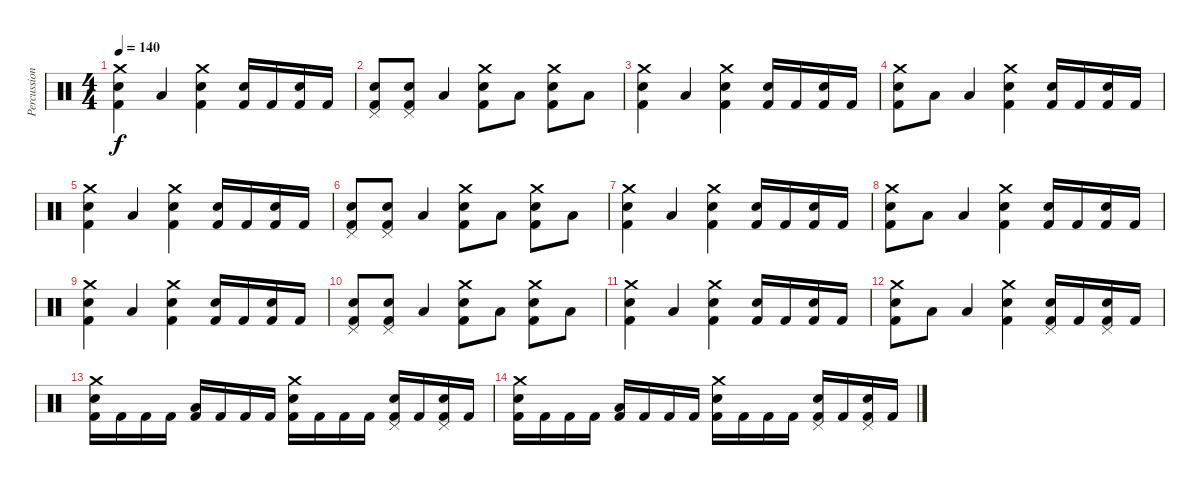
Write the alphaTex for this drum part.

\track ("Percussions" "Percussion") {instrument percussion}
\staff {score}
\articulation defaults
\ts (4 4)
\tempo 140
\clef neutral
\ks c
("Crash medium (hit)" "Electric Snare (hit)" "Kick (hit) 2").4{dy f} "Low Tom (hit)".4 ("Crash medium (hit)" "Electric Snare (hit)" "Kick (hit) 2").4 ("Electric Snare (hit)" "Kick (hit) 2").16 "Kick (hit) 2".16 ("Electric Snare (hit)" "Kick (hit) 2").16 "Kick (hit) 2".16 |
("Pedal Hi-Hat (hit)" "Electric Snare (hit)" "Kick (hit) 2").8 ("Pedal Hi-Hat (hit)" "Electric Snare (hit)" "Kick (hit) 2").8 "Low Tom (hit)".4 ("Crash medium (hit)" "Electric Snare (hit)" "Kick (hit) 2").8 "Low Tom (hit)".8 ("Crash medium (hit)" "Electric Snare (hit)" "Kick (hit) 2").8 "Low Tom (hit)".8 |
("Crash medium (hit)" "Electric Snare (hit)" "Kick (hit) 2").4 "Low Tom (hit)".4 ("Crash medium (hit)" "Electric Snare (hit)" "Kick (hit) 2").4 ("Electric Snare (hit)" "Kick (hit) 2").16 "Kick (hit) 2".16 ("Electric Snare (hit)" "Kick (hit) 2").16 "Kick (hit) 2".16 |
("Crash medium (hit)" "Electric Snare (hit)" "Kick (hit) 2").8 "Low Tom (hit)".8 "Low Tom (hit)".4 ("Crash medium (hit)" "Electric Snare (hit)" "Kick (hit) 2").4 ("Electric Snare (hit)" "Kick (hit) 2").16 "Kick (hit) 2".16 ("Electric Snare (hit)" "Kick (hit) 2").16 "Kick (hit) 2".16 |
("Crash medium (hit)" "Electric Snare (hit)" "Kick (hit) 2").4 "Low Tom (hit)".4 ("Crash medium (hit)" "Electric Snare (hit)" "Kick (hit) 2").4 ("Electric Snare (hit)" "Kick (hit) 2").16 "Kick (hit) 2".16 ("Electric Snare (hit)" "Kick (hit) 2").16 "Kick (hit) 2".16 |
("Pedal Hi-Hat (hit)" "Electric Snare (hit)" "Kick (hit) 2").8 ("Pedal Hi-Hat (hit)" "Electric Snare (hit)" "Kick (hit) 2").8 "Low Tom (hit)".4 ("Crash medium (hit)" "Electric Snare (hit)" "Kick (hit) 2").8 "Low Tom (hit)".8 ("Crash medium (hit)" "Electric Snare (hit)" "Kick (hit) 2").8 "Low Tom (hit)".8 |
("Crash medium (hit)" "Electric Snare (hit)" "Kick (hit) 2").4 "Low Tom (hit)".4 ("Crash medium (hit)" "Electric Snare (hit)" "Kick (hit) 2").4 ("Electric Snare (hit)" "Kick (hit) 2").16 "Kick (hit) 2".16 ("Electric Snare (hit)" "Kick (hit) 2").16 "Kick (hit) 2".16 |
("Crash medium (hit)" "Electric Snare (hit)" "Kick (hit) 2").8 "Low Tom (hit)".8 "Low Tom (hit)".4 ("Crash medium (hit)" "Electric Snare (hit)" "Kick (hit) 2").4 ("Electric Snare (hit)" "Kick (hit) 2").16 "Kick (hit) 2".16 ("Electric Snare (hit)" "Kick (hit) 2").16 "Kick (hit) 2".16 |
("Crash medium (hit)" "Electric Snare (hit)" "Kick (hit) 2").4 "Low Tom (hit)".4 ("Crash medium (hit)" "Electric Snare (hit)" "Kick (hit) 2").4 ("Electric Snare (hit)" "Kick (hit) 2").16 "Kick (hit) 2".16 ("Electric Snare (hit)" "Kick (hit) 2").16 "Kick (hit) 2".16 |
("Pedal Hi-Hat (hit)" "Electric Snare (hit)" "Kick (hit) 2").8 ("Pedal Hi-Hat (hit)" "Electric Snare (hit)" "Kick (hit) 2").8 "Low Tom (hit)".4 ("Crash medium (hit)" "Electric Snare (hit)" "Kick (hit) 2").8 "Low Tom (hit)".8 ("Crash medium (hit)" "Electric Snare (hit)" "Kick (hit) 2").8 "Low Tom (hit)".8 |
("Crash medium (hit)" "Electric Snare (hit)" "Kick (hit) 2").4 "Low Tom (hit)".4 ("Crash medium (hit)" "Electric Snare (hit)" "Kick (hit) 2").4 ("Electric Snare (hit)" "Kick (hit) 2").16 "Kick (hit) 2".16 ("Electric Snare (hit)" "Kick (hit) 2").16 "Kick (hit) 2".16 |
("Crash medium (hit)" "Electric Snare (hit)" "Kick (hit) 2").8 "Low Tom (hit)".8 "Low Tom (hit)".4 ("Crash medium (hit)" "Electric Snare (hit)" "Kick (hit) 2").4 ("Pedal Hi-Hat (hit)" "Electric Snare (hit)" "Kick (hit) 2").16 "Kick (hit) 2".16 ("Pedal Hi-Hat (hit)" "Electric Snare (hit)" "Kick (hit) 2").16 "Kick (hit) 2".16 |
("Crash medium (hit)" "Electric Snare (hit)" "Kick (hit) 2").16 "Kick (hit) 2".16 "Kick (hit) 2".16 "Kick (hit) 2".16 ("Low Tom (hit)" "Kick (hit) 2").16 "Kick (hit) 2".16 "Kick (hit) 2".16 "Kick (hit) 2".16 ("Crash medium (hit)" "Electric Snare (hit)" "Kick (hit) 2").16 "Kick (hit) 2".16 "Kick (hit) 2".16 "Kick (hit) 2".16 ("Pedal Hi-Hat (hit)" "Electric Snare (hit)" "Kick (hit) 2").16 "Kick (hit) 2".16 ("Pedal Hi-Hat (hit)" "Electric Snare (hit)" "Kick (hit) 2").16 "Kick (hit) 2".16 |
("Crash medium (hit)" "Electric Snare (hit)" "Kick (hit) 2").16 "Kick (hit) 2".16 "Kick (hit) 2".16 "Kick (hit) 2".16 ("Low Tom (hit)" "Kick (hit) 2").16 "Kick (hit) 2".16 "Kick (hit) 2".16 "Kick (hit) 2".16 ("Crash medium (hit)" "Electric Snare (hit)" "Kick (hit) 2").16 "Kick (hit) 2".16 "Kick (hit) 2".16 "Kick (hit) 2".16 ("Pedal Hi-Hat (hit)" "Electric Snare (hit)" "Kick (hit) 2").16 "Kick (hit) 2".16 ("Pedal Hi-Hat (hit)" "Electric Snare (hit)" "Kick (hit) 2").16 "Kick (hit) 2".16
